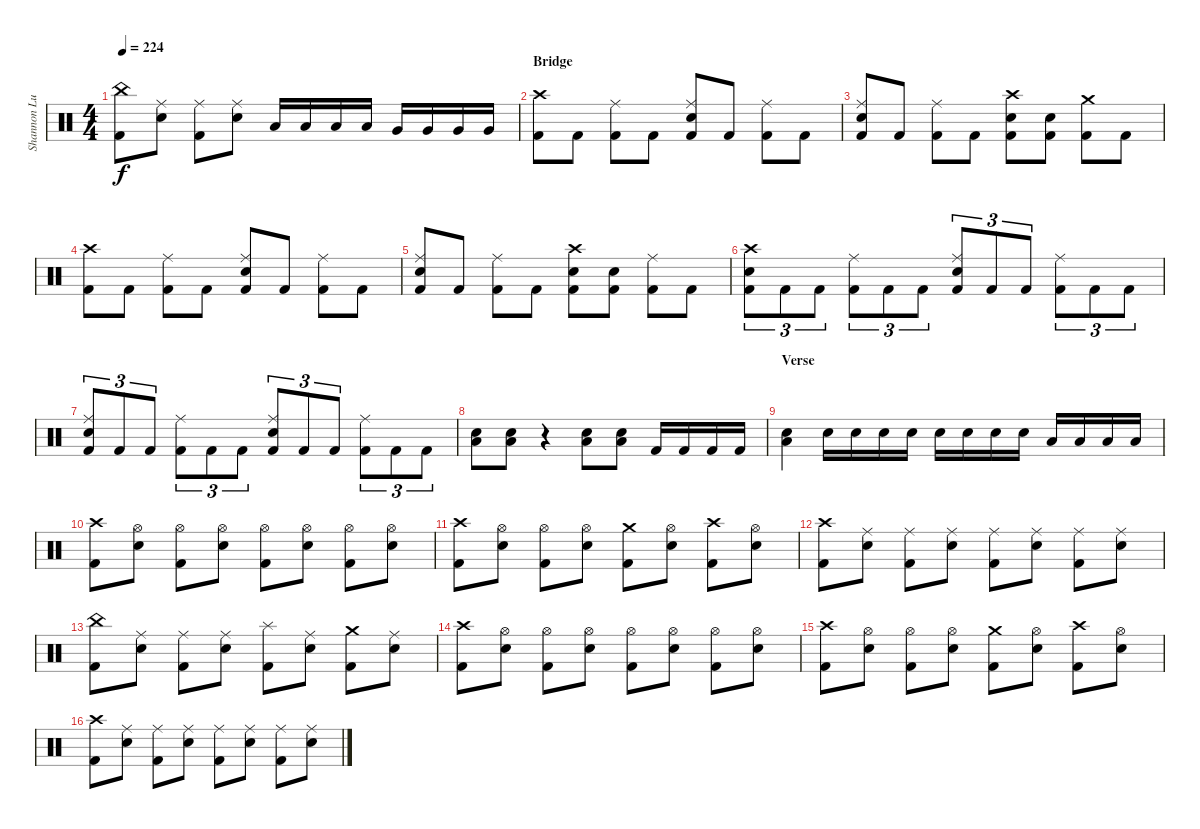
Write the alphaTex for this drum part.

\track ("Shannon Lucas (Drums)" "Shannon Lu") {instrument percussion}
\staff {score}
\articulation defaults
\ts (4 4)
\tempo 224
\clef neutral
\ks c
("China (hit)" "Kick (hit) 2").8{dy f} ("Ride (middle)" "Snare (hit) 2").8 ("Ride (middle)" "Kick (hit) 2").8 ("Ride (middle)" "Snare (hit) 2").8 "Low Tom (hit)".16 "Low Tom (hit)".16 "Low Tom (hit)".16 "Low Tom (hit)".16 "Very Low Tom (hit)".16 "Very Low Tom (hit)".16 "Very Low Tom (hit)".16 "Very Low Tom (hit)".16 |
\section ("" "Bridge")
("Crash high (hit)" "Kick (hit) 2").8 "Kick (hit) 2".8 ("Ride (middle)" "Kick (hit) 2").8 "Kick (hit) 2".8 ("Ride (middle)" "Snare (hit) 2" "Kick (hit) 2").8 "Kick (hit) 2".8 ("Ride (middle)" "Kick (hit) 2").8 "Kick (hit) 2".8 |
("Ride (middle)" "Snare (hit) 2" "Kick (hit) 2").8 "Kick (hit) 2".8 ("Ride (middle)" "Kick (hit) 2").8 "Kick (hit) 2".8 ("Crash high (hit)" "Snare (hit) 2" "Kick (hit) 2").8 ("Snare (hit) 2" "Kick (hit) 2").8 ("Crash medium (hit)" "Kick (hit) 2").8 "Kick (hit) 2".8 |
("Crash high (hit)" "Kick (hit) 2").8 "Kick (hit) 2".8 ("Ride (middle)" "Kick (hit) 2").8 "Kick (hit) 2".8 ("Ride (middle)" "Snare (hit) 2" "Kick (hit) 2").8 "Kick (hit) 2".8 ("Ride (middle)" "Kick (hit) 2").8 "Kick (hit) 2".8 |
("Ride (middle)" "Snare (hit) 2" "Kick (hit) 2").8 "Kick (hit) 2".8 ("Ride (middle)" "Kick (hit) 2").8 "Kick (hit) 2".8 ("Crash high (hit)" "Snare (hit) 2" "Kick (hit) 2").8 ("Snare (hit) 2" "Kick (hit) 2").8 ("Ride (middle)" "Kick (hit) 2").8 "Kick (hit) 2".8 |
("Crash high (hit)" "Snare (hit) 2" "Kick (hit) 2").8{tu (3 2)} "Kick (hit) 2".8{tu (3 2)} "Kick (hit) 2".8{tu (3 2)} ("Ride (middle)" "Kick (hit) 2").8{tu (3 2)} "Kick (hit) 2".8{tu (3 2)} "Kick (hit) 2".8{tu (3 2)} ("Ride (middle)" "Snare (hit) 2" "Kick (hit) 2").8{tu (3 2)} "Kick (hit) 2".8{tu (3 2)} "Kick (hit) 2".8{tu (3 2)} ("Ride (middle)" "Kick (hit) 2").8{tu (3 2)} "Kick (hit) 2".8{tu (3 2)} "Kick (hit) 2".8{tu (3 2)} |
("Ride (middle)" "Snare (hit) 2" "Kick (hit) 2").8{tu (3 2)} "Kick (hit) 2".8{tu (3 2)} "Kick (hit) 2".8{tu (3 2)} ("Ride (middle)" "Kick (hit) 2").8{tu (3 2)} "Kick (hit) 2".8{tu (3 2)} "Kick (hit) 2".8{tu (3 2)} ("Ride (middle)" "Snare (hit) 2" "Kick (hit) 2").8{tu (3 2)} "Kick (hit) 2".8{tu (3 2)} "Kick (hit) 2".8{tu (3 2)} ("Ride (middle)" "Kick (hit) 2").8{tu (3 2)} "Kick (hit) 2".8{tu (3 2)} "Kick (hit) 2".8{tu (3 2)} |
("Low Floor Tom (hit)" "Snare (hit) 2").8 ("Low Floor Tom (hit)" "Snare (hit) 2").8 r.4 ("Low Floor Tom (hit)" "Snare (hit) 2").8 ("Low Floor Tom (hit)" "Snare (hit) 2").8 "Kick (hit) 2".16 "Kick (hit) 2".16 "Kick (hit) 2".16 "Kick (hit) 2".16 |
\section ("" "Verse")
("Low Floor Tom (hit)" "Snare (hit) 2").4 "Snare (hit) 2".16 "Snare (hit) 2".16 "Snare (hit) 2".16 "Snare (hit) 2".16 "Snare (hit) 2".16 "Snare (hit) 2".16 "Snare (hit) 2".16 "Snare (hit) 2".16 "Low Tom (hit)".16 "Low Tom (hit)".16 "Low Tom (hit)".16 "Low Tom (hit)".16 |
("Crash high (hit)" "Kick (hit) 2").8{balance 8} ("Hi-Hat (open)" "Snare (hit) 2").8 ("Hi-Hat (open)" "Kick (hit) 2").8 ("Hi-Hat (open)" "Snare (hit) 2").8 ("Hi-Hat (open)" "Kick (hit) 2").8 ("Hi-Hat (open)" "Snare (hit) 2").8 ("Hi-Hat (open)" "Kick (hit) 2").8 ("Hi-Hat (open)" "Snare (hit) 2").8 |
("Crash high (hit)" "Kick (hit) 2").8 ("Hi-Hat (open)" "Snare (hit) 2").8 ("Hi-Hat (open)" "Kick (hit) 2").8 ("Hi-Hat (open)" "Snare (hit) 2").8 ("Crash medium (hit)" "Kick (hit) 2").8 ("Hi-Hat (open)" "Snare (hit) 2").8 ("Crash high (hit)" "Kick (hit) 2").8 ("Hi-Hat (open)" "Snare (hit) 2").8 |
("Crash high (hit)" "Kick (hit) 2").8 ("Ride (middle)" "Snare (hit) 2").8 ("Ride (middle)" "Kick (hit) 2").8 ("Ride (middle)" "Snare (hit) 2").8 ("Ride (middle)" "Kick (hit) 2").8 ("Ride (middle)" "Snare (hit) 2").8 ("Ride (middle)" "Kick (hit) 2").8 ("Ride (middle)" "Snare (hit) 2").8 |
("China (hit)" "Kick (hit) 2").8 ("Ride (middle)" "Snare (hit) 2").8 ("Ride (middle)" "Kick (hit) 2").8 ("Ride (middle)" "Snare (hit) 2").8 ("Splash (hit)" "Kick (hit) 2").8 ("Ride (middle)" "Snare (hit) 2").8 ("Crash medium (hit)" "Kick (hit) 2").8 ("Ride (middle)" "Snare (hit) 2").8 |
("Crash high (hit)" "Kick (hit) 2").8{balance 8} ("Hi-Hat (open)" "Snare (hit) 2").8 ("Hi-Hat (open)" "Kick (hit) 2").8 ("Hi-Hat (open)" "Snare (hit) 2").8 ("Hi-Hat (open)" "Kick (hit) 2").8 ("Hi-Hat (open)" "Snare (hit) 2").8 ("Hi-Hat (open)" "Kick (hit) 2").8 ("Hi-Hat (open)" "Snare (hit) 2").8 |
("Crash high (hit)" "Kick (hit) 2").8 ("Hi-Hat (open)" "Snare (hit) 2").8 ("Hi-Hat (open)" "Kick (hit) 2").8 ("Hi-Hat (open)" "Snare (hit) 2").8 ("Crash medium (hit)" "Kick (hit) 2").8 ("Hi-Hat (open)" "Snare (hit) 2").8 ("Crash high (hit)" "Kick (hit) 2").8 ("Hi-Hat (open)" "Snare (hit) 2").8 |
("Crash high (hit)" "Kick (hit) 2").8 ("Ride (middle)" "Snare (hit) 2").8 ("Ride (middle)" "Kick (hit) 2").8 ("Ride (middle)" "Snare (hit) 2").8 ("Ride (middle)" "Kick (hit) 2").8 ("Ride (middle)" "Snare (hit) 2").8 ("Ride (middle)" "Kick (hit) 2").8 ("Ride (middle)" "Snare (hit) 2").8
